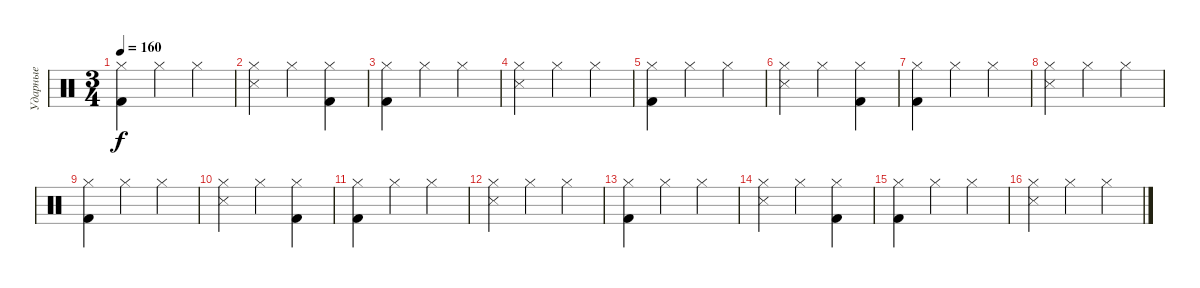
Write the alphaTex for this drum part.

\track ("Ударные" "Ударные") {instrument percussion}
\staff {score}
\articulation defaults
\ts (3 4)
\tempo 160
\clef neutral
\ks c
("Hi-Hat (closed)" "Kick (hit) 2").4{dy f} "Hi-Hat (closed)".4 "Hi-Hat (closed)".4 |
("Hi-Hat (closed)" "Snare (side stick) 3").4 "Hi-Hat (closed)".4 ("Hi-Hat (closed)" "Kick (hit) 2").4 |
("Hi-Hat (closed)" "Kick (hit) 2").4 "Hi-Hat (closed)".4 "Hi-Hat (closed)".4 |
("Hi-Hat (closed)" "Snare (side stick) 3").4 "Hi-Hat (closed)".4 "Hi-Hat (closed)".4 |
("Hi-Hat (closed)" "Kick (hit) 2").4 "Hi-Hat (closed)".4 "Hi-Hat (closed)".4 |
("Hi-Hat (closed)" "Snare (side stick) 3").4 "Hi-Hat (closed)".4 ("Hi-Hat (closed)" "Kick (hit) 2").4 |
("Hi-Hat (closed)" "Kick (hit) 2").4 "Hi-Hat (closed)".4 "Hi-Hat (closed)".4 |
("Hi-Hat (closed)" "Snare (side stick) 3").4 "Hi-Hat (closed)".4 "Hi-Hat (closed)".4 |
("Hi-Hat (closed)" "Kick (hit) 2").4 "Hi-Hat (closed)".4 "Hi-Hat (closed)".4 |
("Hi-Hat (closed)" "Snare (side stick) 3").4 "Hi-Hat (closed)".4 ("Hi-Hat (closed)" "Kick (hit) 2").4 |
("Hi-Hat (closed)" "Kick (hit) 2").4 "Hi-Hat (closed)".4 "Hi-Hat (closed)".4 |
("Hi-Hat (closed)" "Snare (side stick) 3").4 "Hi-Hat (closed)".4 "Hi-Hat (closed)".4 |
("Hi-Hat (closed)" "Kick (hit) 2").4 "Hi-Hat (closed)".4 "Hi-Hat (closed)".4 |
("Hi-Hat (closed)" "Snare (side stick) 3").4 "Hi-Hat (closed)".4 ("Hi-Hat (closed)" "Kick (hit) 2").4 |
("Hi-Hat (closed)" "Kick (hit) 2").4 "Hi-Hat (closed)".4 "Hi-Hat (closed)".4 |
("Hi-Hat (closed)" "Snare (side stick) 3").4 "Hi-Hat (closed)".4 "Hi-Hat (closed)".4
